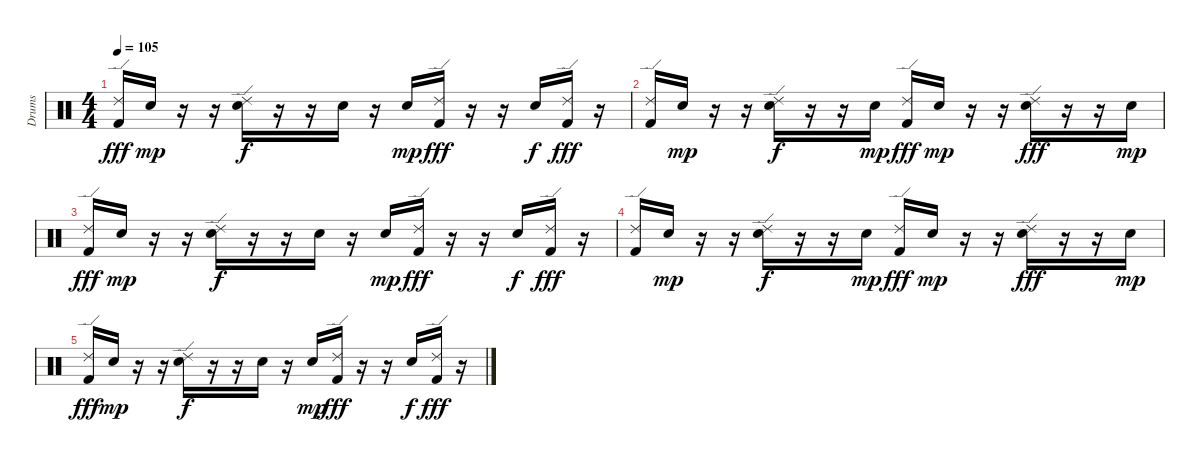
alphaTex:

\track ("Drums" "Drums") {instrument percussion}
\staff {score}
\articulation defaults
\ts (4 4)
\tempo 105
\clef neutral
\ks c
("Ride (edge) 2" "Kick (hit) 2").16{dy fff} "Electric Snare (hit)".16{dy mp} r.16 r.16 ("Ride (edge) 2" "Electric Snare (hit)").16{dy f} r.16 r.16 "Electric Snare (hit)".16 r.16 "Electric Snare (hit)".16{dy mp} ("Ride (edge) 2" "Kick (hit) 2").16{dy fff} r.16 r.16 "Electric Snare (hit)".16{dy f} ("Ride (edge) 2" "Kick (hit) 2").16{dy fff} r.16 |
("Ride (edge) 2" "Kick (hit) 2").16 "Electric Snare (hit)".16{dy mp} r.16 r.16 ("Ride (edge) 2" "Electric Snare (hit)").16{dy f} r.16 r.16 "Electric Snare (hit)".16{dy mp} ("Ride (edge) 2" "Kick (hit) 2").16{dy fff} "Electric Snare (hit)".16{dy mp} r.16 r.16 ("Ride (edge) 2" "Electric Snare (hit)").16{dy fff} r.16 r.16 "Electric Snare (hit)".16{dy mp} |
("Ride (edge) 2" "Kick (hit) 2").16{dy fff} "Electric Snare (hit)".16{dy mp} r.16 r.16 ("Ride (edge) 2" "Electric Snare (hit)").16{dy f} r.16 r.16 "Electric Snare (hit)".16 r.16 "Electric Snare (hit)".16{dy mp} ("Ride (edge) 2" "Kick (hit) 2").16{dy fff} r.16 r.16 "Electric Snare (hit)".16{dy f} ("Ride (edge) 2" "Kick (hit) 2").16{dy fff} r.16 |
("Ride (edge) 2" "Kick (hit) 2").16 "Electric Snare (hit)".16{dy mp} r.16 r.16 ("Ride (edge) 2" "Electric Snare (hit)").16{dy f} r.16 r.16 "Electric Snare (hit)".16{dy mp} ("Ride (edge) 2" "Kick (hit) 2").16{dy fff} "Electric Snare (hit)".16{dy mp} r.16 r.16 ("Ride (edge) 2" "Electric Snare (hit)").16{dy fff} r.16 r.16 "Electric Snare (hit)".16{dy mp} |
("Ride (edge) 2" "Kick (hit) 2").16{dy fff} "Electric Snare (hit)".16{dy mp} r.16 r.16 ("Ride (edge) 2" "Electric Snare (hit)").16{dy f} r.16 r.16 "Electric Snare (hit)".16 r.16 "Electric Snare (hit)".16{dy mp} ("Ride (edge) 2" "Kick (hit) 2").16{dy fff} r.16 r.16 "Electric Snare (hit)".16{dy f} ("Ride (edge) 2" "Kick (hit) 2").16{dy fff} r.16
